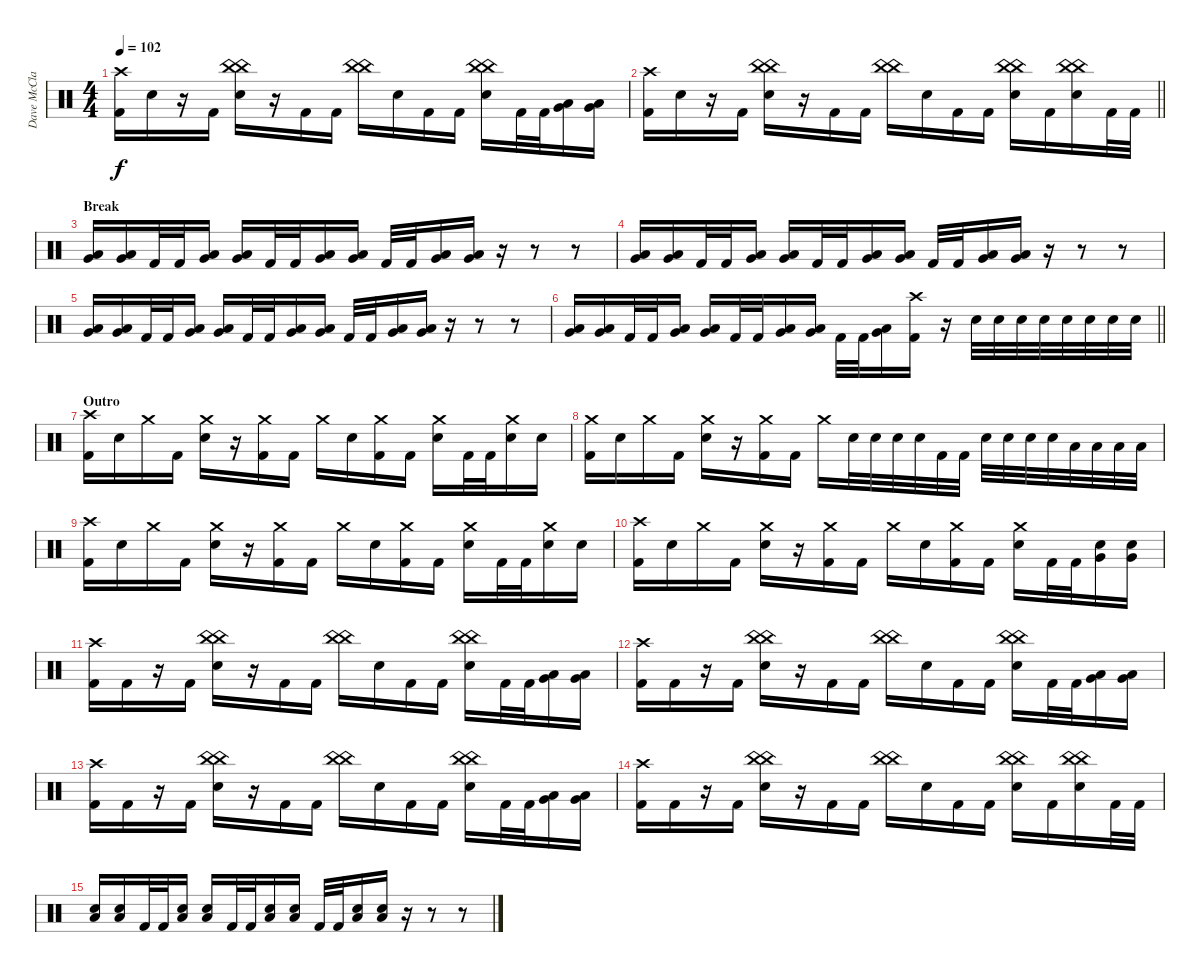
\track ("Dave McClain (drums)" "Dave McCla") {instrument percussion}
\staff {score}
\articulation defaults
\ts (4 4)
\tempo 102
\clef neutral
\ks c
("Crash high (hit)" "Kick (hit) 2").16{dy f} "Electric Snare (hit)".16 r.16 "Kick (hit) 2".16 ("China (hit)" "China (hit)" "Electric Snare (hit)").16 r.16 "Kick (hit) 2".16 "Kick (hit) 2".16 ("China (hit)" "China (hit)").16 "Electric Snare (hit)".16 "Kick (hit) 2".16 "Kick (hit) 2".16 ("China (hit)" "China (hit)" "Electric Snare (hit)").16 "Kick (hit) 2".32 "Kick (hit) 2".32 ("Very Low Tom (hit)" "Low Floor Tom (hit)").16 ("Very Low Tom (hit)" "Low Floor Tom (hit)").16 |
\barLineRight lightlight
("Crash high (hit)" "Kick (hit) 2").16 "Electric Snare (hit)".16 r.16 "Kick (hit) 2".16 ("China (hit)" "China (hit)" "Electric Snare (hit)").16 r.16 "Kick (hit) 2".16 "Kick (hit) 2".16 ("China (hit)" "China (hit)").16 "Electric Snare (hit)".16 "Kick (hit) 2".16 "Kick (hit) 2".16 ("China (hit)" "China (hit)" "Electric Snare (hit)").16 "Kick (hit) 2".16 ("China (hit)" "China (hit)" "Electric Snare (hit)").16 "Kick (hit) 2".32 "Kick (hit) 2".32 |
\section ("" "Break")
("Very Low Tom (hit)" "Low Floor Tom (hit)").16 ("Very Low Tom (hit)" "Low Floor Tom (hit)").16 "Kick (hit) 2".32 "Kick (hit) 2".32 ("Very Low Tom (hit)" "Low Floor Tom (hit)").16 ("Very Low Tom (hit)" "Low Floor Tom (hit)").16 "Kick (hit) 2".32 "Kick (hit) 2".32 ("Very Low Tom (hit)" "Low Floor Tom (hit)").16 ("Very Low Tom (hit)" "Low Floor Tom (hit)").16 "Kick (hit) 2".32 "Kick (hit) 2".32 ("Very Low Tom (hit)" "Low Floor Tom (hit)").16 ("Very Low Tom (hit)" "Low Floor Tom (hit)").16 r.16 r.8 r.8 |
("Very Low Tom (hit)" "Low Floor Tom (hit)").16 ("Very Low Tom (hit)" "Low Floor Tom (hit)").16 "Kick (hit) 2".32 "Kick (hit) 2".32 ("Very Low Tom (hit)" "Low Floor Tom (hit)").16 ("Very Low Tom (hit)" "Low Floor Tom (hit)").16 "Kick (hit) 2".32 "Kick (hit) 2".32 ("Very Low Tom (hit)" "Low Floor Tom (hit)").16 ("Very Low Tom (hit)" "Low Floor Tom (hit)").16 "Kick (hit) 2".32 "Kick (hit) 2".32 ("Very Low Tom (hit)" "Low Floor Tom (hit)").16 ("Very Low Tom (hit)" "Low Floor Tom (hit)").16 r.16 r.8 r.8 |
("Very Low Tom (hit)" "Low Floor Tom (hit)").16 ("Very Low Tom (hit)" "Low Floor Tom (hit)").16 "Kick (hit) 2".32 "Kick (hit) 2".32 ("Very Low Tom (hit)" "Low Floor Tom (hit)").16 ("Very Low Tom (hit)" "Low Floor Tom (hit)").16 "Kick (hit) 2".32 "Kick (hit) 2".32 ("Very Low Tom (hit)" "Low Floor Tom (hit)").16 ("Very Low Tom (hit)" "Low Floor Tom (hit)").16 "Kick (hit) 2".32 "Kick (hit) 2".32 ("Very Low Tom (hit)" "Low Floor Tom (hit)").16 ("Very Low Tom (hit)" "Low Floor Tom (hit)").16 r.16 r.8 r.8 |
\barLineRight lightlight
("Very Low Tom (hit)" "Low Floor Tom (hit)").16 ("Very Low Tom (hit)" "Low Floor Tom (hit)").16 "Kick (hit) 2".32 "Kick (hit) 2".32 ("Very Low Tom (hit)" "Low Floor Tom (hit)").16 ("Very Low Tom (hit)" "Low Floor Tom (hit)").16 "Kick (hit) 2".32 "Kick (hit) 2".32 ("Very Low Tom (hit)" "Low Floor Tom (hit)").16 ("Very Low Tom (hit)" "Low Floor Tom (hit)").16 "Kick (hit) 2".32 "Kick (hit) 2".32 ("Very Low Tom (hit)" "Low Floor Tom (hit)").16 ("Crash high (hit)" "Kick (hit) 2").16 r.16 "Electric Snare (hit)".32 "Electric Snare (hit)".32 "Electric Snare (hit)".32 "Electric Snare (hit)".32 "Electric Snare (hit)".32 "Electric Snare (hit)".32 "Electric Snare (hit)".32 "Electric Snare (hit)".32 |
\section ("" "Outro")
("Crash high (hit)" "Kick (hit) 2").16 "Electric Snare (hit)".16 "Crash medium (hit)".16 "Kick (hit) 2".16 ("Crash medium (hit)" "Electric Snare (hit)").16 r.16 ("Crash medium (hit)" "Kick (hit) 2").16 "Kick (hit) 2".16 "Crash medium (hit)".16 "Electric Snare (hit)".16 ("Crash medium (hit)" "Kick (hit) 2").16 "Kick (hit) 2".16 ("Crash medium (hit)" "Electric Snare (hit)").16 "Kick (hit) 2".32 "Kick (hit) 2".32 ("Crash medium (hit)" "Electric Snare (hit)").16 "Electric Snare (hit)".16 |
("Crash medium (hit)" "Kick (hit) 2").16 "Electric Snare (hit)".16 "Crash medium (hit)".16 "Kick (hit) 2".16 ("Crash medium (hit)" "Electric Snare (hit)").16 r.16 ("Crash medium (hit)" "Kick (hit) 2").16 "Kick (hit) 2".16 "Crash medium (hit)".16 "Electric Snare (hit)".32 "Electric Snare (hit)".32 "Electric Snare (hit)".32 "Electric Snare (hit)".32 "Kick (hit) 2".32 "Kick (hit) 2".32 "Electric Snare (hit)".32 "Electric Snare (hit)".32 "Electric Snare (hit)".32 "Electric Snare (hit)".32 "Low Tom (hit)".32 "Low Tom (hit)".32 "Low Tom (hit)".32 "Low Tom (hit)".32 |
("Crash high (hit)" "Kick (hit) 2").16 "Electric Snare (hit)".16 "Crash medium (hit)".16 "Kick (hit) 2".16 ("Crash medium (hit)" "Electric Snare (hit)").16 r.16 ("Crash medium (hit)" "Kick (hit) 2").16 "Kick (hit) 2".16 "Crash medium (hit)".16 "Electric Snare (hit)".16 ("Crash medium (hit)" "Kick (hit) 2").16 "Kick (hit) 2".16 ("Crash medium (hit)" "Electric Snare (hit)").16 "Kick (hit) 2".32 "Kick (hit) 2".32 ("Crash medium (hit)" "Electric Snare (hit)").16 "Electric Snare (hit)".16 |
("Crash high (hit)" "Kick (hit) 2").16 "Electric Snare (hit)".16 "Crash medium (hit)".16 "Kick (hit) 2".16 ("Crash medium (hit)" "Electric Snare (hit)").16 r.16 ("Crash medium (hit)" "Kick (hit) 2").16 "Kick (hit) 2".16 "Crash medium (hit)".16 "Electric Snare (hit)".16 ("Crash medium (hit)" "Kick (hit) 2").16 "Kick (hit) 2".16 ("Crash medium (hit)" "Electric Snare (hit)").16 "Kick (hit) 2".32 "Kick (hit) 2".32 ("Electric Snare (hit)" "Very Low Tom (hit)").16 ("Electric Snare (hit)" "Very Low Tom (hit)").16 |
("Crash high (hit)" "Kick (hit) 2").16 "Kick (hit) 2".16 r.16 "Kick (hit) 2".16 ("China (hit)" "China (hit)" "Electric Snare (hit)").16 r.16 "Kick (hit) 2".16 "Kick (hit) 2".16 ("China (hit)" "China (hit)").16 "Electric Snare (hit)".16 "Kick (hit) 2".16 "Kick (hit) 2".16 ("China (hit)" "China (hit)" "Electric Snare (hit)").16 "Kick (hit) 2".32 "Kick (hit) 2".32 ("Very Low Tom (hit)" "Low Floor Tom (hit)").16 ("Very Low Tom (hit)" "Low Floor Tom (hit)").16 |
("Crash high (hit)" "Kick (hit) 2").16 "Kick (hit) 2".16 r.16 "Kick (hit) 2".16 ("China (hit)" "China (hit)" "Electric Snare (hit)").16 r.16 "Kick (hit) 2".16 "Kick (hit) 2".16 ("China (hit)" "China (hit)").16 "Electric Snare (hit)".16 "Kick (hit) 2".16 "Kick (hit) 2".16 ("China (hit)" "China (hit)" "Electric Snare (hit)").16 "Kick (hit) 2".32 "Kick (hit) 2".32 ("Very Low Tom (hit)" "Low Floor Tom (hit)").16 ("Very Low Tom (hit)" "Low Floor Tom (hit)").16 |
("Crash high (hit)" "Kick (hit) 2").16 "Kick (hit) 2".16 r.16 "Kick (hit) 2".16 ("China (hit)" "China (hit)" "Electric Snare (hit)").16 r.16 "Kick (hit) 2".16 "Kick (hit) 2".16 ("China (hit)" "China (hit)").16 "Electric Snare (hit)".16 "Kick (hit) 2".16 "Kick (hit) 2".16 ("China (hit)" "China (hit)" "Electric Snare (hit)").16 "Kick (hit) 2".32 "Kick (hit) 2".32 ("Very Low Tom (hit)" "Low Floor Tom (hit)").16 ("Very Low Tom (hit)" "Low Floor Tom (hit)").16 |
("Crash high (hit)" "Kick (hit) 2").16 "Kick (hit) 2".16 r.16 "Kick (hit) 2".16 ("China (hit)" "China (hit)" "Electric Snare (hit)").16 r.16 "Kick (hit) 2".16 "Kick (hit) 2".16 ("China (hit)" "China (hit)").16 "Electric Snare (hit)".16 "Kick (hit) 2".16 "Kick (hit) 2".16 ("China (hit)" "China (hit)" "Electric Snare (hit)").16 "Kick (hit) 2".16 ("China (hit)" "China (hit)" "Electric Snare (hit)").16 "Kick (hit) 2".32 "Kick (hit) 2".32 |
("Electric Snare (hit)" "Low Floor Tom (hit)").16 ("Electric Snare (hit)" "Low Floor Tom (hit)").16 "Kick (hit) 2".32 "Kick (hit) 2".32 ("Electric Snare (hit)" "Low Floor Tom (hit)").16 ("Electric Snare (hit)" "Low Floor Tom (hit)").16 "Kick (hit) 2".32 "Kick (hit) 2".32 ("Electric Snare (hit)" "Low Floor Tom (hit)").16 ("Electric Snare (hit)" "Low Floor Tom (hit)").16 "Kick (hit) 2".32 "Kick (hit) 2".32 ("Electric Snare (hit)" "Low Floor Tom (hit)").16 ("Electric Snare (hit)" "Low Floor Tom (hit)").16 r.16 r.8 r.8
